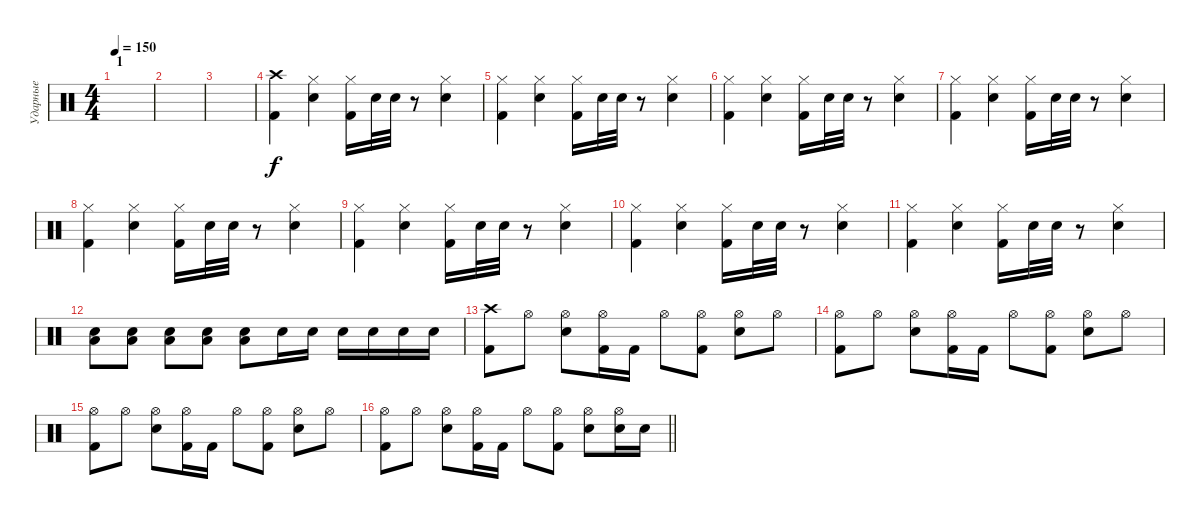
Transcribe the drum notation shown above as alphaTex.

\track ("Ударные" "Ударные") {instrument percussion}
\staff {score}
\articulation defaults
\ts (4 4)
\section ("" "1")
\tempo 150
\clef neutral
\ks c
|
|
|
("Crash high (hit)" "Kick (hit) 2").4 ("Hi-Hat (closed)" "Electric Snare (hit)").4 ("Hi-Hat (closed)" "Kick (hit) 2").16 "Electric Snare (hit)".32 "Electric Snare (hit)".32 r.8 ("Hi-Hat (closed)" "Electric Snare (hit)").4 |
("Hi-Hat (closed)" "Kick (hit) 2").4 ("Hi-Hat (closed)" "Electric Snare (hit)").4 ("Hi-Hat (closed)" "Kick (hit) 2").16 "Electric Snare (hit)".32 "Electric Snare (hit)".32 r.8 ("Hi-Hat (closed)" "Electric Snare (hit)").4 |
("Hi-Hat (closed)" "Kick (hit) 2").4 ("Hi-Hat (closed)" "Electric Snare (hit)").4 ("Hi-Hat (closed)" "Kick (hit) 2").16 "Electric Snare (hit)".32 "Electric Snare (hit)".32 r.8 ("Hi-Hat (closed)" "Electric Snare (hit)").4 |
("Hi-Hat (closed)" "Kick (hit) 2").4 ("Hi-Hat (closed)" "Electric Snare (hit)").4 ("Hi-Hat (closed)" "Kick (hit) 2").16 "Electric Snare (hit)".32 "Electric Snare (hit)".32 r.8 ("Hi-Hat (closed)" "Electric Snare (hit)").4 |
("Hi-Hat (closed)" "Kick (hit) 2").4 ("Hi-Hat (closed)" "Electric Snare (hit)").4 ("Hi-Hat (closed)" "Kick (hit) 2").16 "Electric Snare (hit)".32 "Electric Snare (hit)".32 r.8 ("Hi-Hat (closed)" "Electric Snare (hit)").4 |
("Hi-Hat (closed)" "Kick (hit) 2").4 ("Hi-Hat (closed)" "Electric Snare (hit)").4 ("Hi-Hat (closed)" "Kick (hit) 2").16 "Electric Snare (hit)".32 "Electric Snare (hit)".32 r.8 ("Hi-Hat (closed)" "Electric Snare (hit)").4 |
("Hi-Hat (closed)" "Kick (hit) 2").4 ("Hi-Hat (closed)" "Electric Snare (hit)").4 ("Hi-Hat (closed)" "Kick (hit) 2").16 "Electric Snare (hit)".32 "Electric Snare (hit)".32 r.8 ("Hi-Hat (closed)" "Electric Snare (hit)").4 |
("Hi-Hat (closed)" "Kick (hit) 2").4 ("Hi-Hat (closed)" "Electric Snare (hit)").4 ("Hi-Hat (closed)" "Kick (hit) 2").16 "Electric Snare (hit)".32 "Electric Snare (hit)".32 r.8 ("Hi-Hat (closed)" "Electric Snare (hit)").4 |
("Electric Snare (hit)" "Low Tom (hit)").8 ("Electric Snare (hit)" "Low Tom (hit)").8 ("Electric Snare (hit)" "Low Tom (hit)").8 ("Electric Snare (hit)" "Low Tom (hit)").8 ("Electric Snare (hit)" "Low Tom (hit)").8 "Electric Snare (hit)".16 "Electric Snare (hit)".16 "Electric Snare (hit)".16 "Electric Snare (hit)".16 "Electric Snare (hit)".16 "Electric Snare (hit)".16 |
("Crash high (hit)" "Kick (hit) 2").8 "Hi-Hat (open)".8 ("Hi-Hat (open)" "Electric Snare (hit)").8 ("Hi-Hat (open)" "Kick (hit) 2").16 "Kick (hit) 2".16 "Hi-Hat (open)".8 ("Hi-Hat (open)" "Kick (hit) 2").8 ("Hi-Hat (open)" "Electric Snare (hit)").8 "Hi-Hat (open)".8 |
("Hi-Hat (open)" "Kick (hit) 2").8 "Hi-Hat (open)".8 ("Hi-Hat (open)" "Electric Snare (hit)").8 ("Hi-Hat (open)" "Kick (hit) 2").16 "Kick (hit) 2".16 "Hi-Hat (open)".8 ("Hi-Hat (open)" "Kick (hit) 2").8 ("Hi-Hat (open)" "Electric Snare (hit)").8 "Hi-Hat (open)".8 |
("Hi-Hat (open)" "Kick (hit) 2").8 "Hi-Hat (open)".8 ("Hi-Hat (open)" "Electric Snare (hit)").8 ("Hi-Hat (open)" "Kick (hit) 2").16 "Kick (hit) 2".16 "Hi-Hat (open)".8 ("Hi-Hat (open)" "Kick (hit) 2").8 ("Hi-Hat (open)" "Electric Snare (hit)").8 "Hi-Hat (open)".8 |
\barLineRight lightlight
("Hi-Hat (open)" "Kick (hit) 2").8 "Hi-Hat (open)".8 ("Hi-Hat (open)" "Electric Snare (hit)").8 ("Hi-Hat (open)" "Kick (hit) 2").16 "Kick (hit) 2".16 "Hi-Hat (open)".8 ("Hi-Hat (open)" "Kick (hit) 2").8 ("Hi-Hat (open)" "Electric Snare (hit)").8 ("Hi-Hat (open)" "Electric Snare (hit)").16 "Electric Snare (hit)".16
